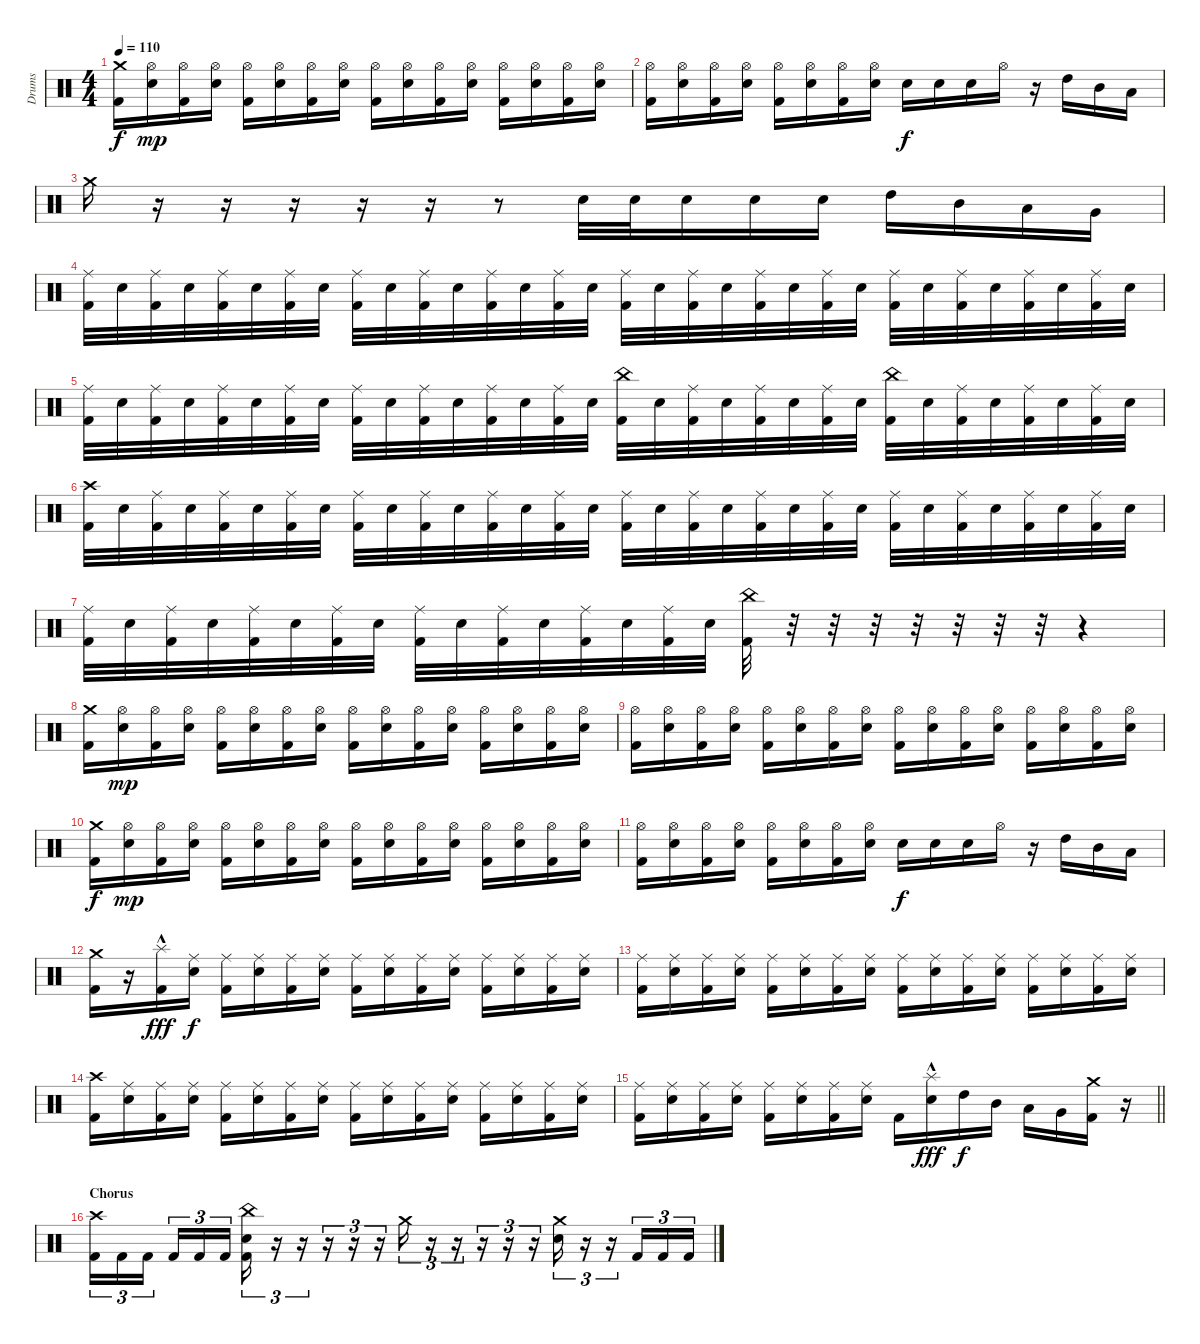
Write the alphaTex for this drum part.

\track ("Drums" "Drums") {instrument percussion}
\staff {score}
\articulation defaults
\ts (4 4)
\tempo 110
\clef neutral
\ks c
("Crash medium (hit)" "Kick (hit) 2").16{dy f} ("Hi-Hat (open)" "Electric Snare (hit)").16{dy mp} ("Hi-Hat (open)" "Kick (hit) 2").16 ("Hi-Hat (open)" "Electric Snare (hit)").16 ("Hi-Hat (open)" "Kick (hit) 2").16 ("Hi-Hat (open)" "Electric Snare (hit)").16 ("Hi-Hat (open)" "Kick (hit) 2").16 ("Hi-Hat (open)" "Electric Snare (hit)").16 ("Hi-Hat (open)" "Kick (hit) 2").16 ("Hi-Hat (open)" "Electric Snare (hit)").16 ("Hi-Hat (open)" "Kick (hit) 2").16 ("Hi-Hat (open)" "Electric Snare (hit)").16 ("Hi-Hat (open)" "Kick (hit) 2").16 ("Hi-Hat (open)" "Electric Snare (hit)").16 ("Hi-Hat (open)" "Kick (hit) 2").16 ("Hi-Hat (open)" "Electric Snare (hit)").16 |
("Hi-Hat (open)" "Kick (hit) 2").16 ("Hi-Hat (open)" "Electric Snare (hit)").16 ("Hi-Hat (open)" "Kick (hit) 2").16 ("Hi-Hat (open)" "Electric Snare (hit)").16 ("Hi-Hat (open)" "Kick (hit) 2").16 ("Hi-Hat (open)" "Electric Snare (hit)").16 ("Hi-Hat (open)" "Kick (hit) 2").16 ("Hi-Hat (open)" "Electric Snare (hit)").16 "Electric Snare (hit)".16{dy f} "Electric Snare (hit)".16 "Electric Snare (hit)".16 "Hi-Hat (open)".16 r.16 "High Tom (hit)".16 "Mid Tom (hit)".16 "Low Tom (hit)".16 |
"Crash medium (hit)".16 r.16 r.16 r.16 r.16 r.16 r.8 "Electric Snare (hit)".32 "Electric Snare (hit)".32 "Electric Snare (hit)".16 "Electric Snare (hit)".16 "Electric Snare (hit)".16 "High Tom (hit)".16 "Mid Tom (hit)".16 "Low Tom (hit)".16 "Very Low Tom (hit)".16 |
("Ride (middle)" "Kick (hit) 2").32 "Electric Snare (hit)".32 ("Ride (middle)" "Kick (hit) 2").32 "Electric Snare (hit)".32 ("Ride (middle)" "Kick (hit) 2").32 "Electric Snare (hit)".32 ("Ride (middle)" "Kick (hit) 2").32 "Electric Snare (hit)".32 ("Ride (middle)" "Kick (hit) 2").32 "Electric Snare (hit)".32 ("Ride (middle)" "Kick (hit) 2").32 "Electric Snare (hit)".32 ("Ride (middle)" "Kick (hit) 2").32 "Electric Snare (hit)".32 ("Ride (middle)" "Kick (hit) 2").32 "Electric Snare (hit)".32 ("Ride (middle)" "Kick (hit) 2").32 "Electric Snare (hit)".32 ("Ride (middle)" "Kick (hit) 2").32 "Electric Snare (hit)".32 ("Ride (middle)" "Kick (hit) 2").32 "Electric Snare (hit)".32 ("Ride (middle)" "Kick (hit) 2").32 "Electric Snare (hit)".32 ("Ride (middle)" "Kick (hit) 2").32 "Electric Snare (hit)".32 ("Ride (middle)" "Kick (hit) 2").32 "Electric Snare (hit)".32 ("Ride (middle)" "Kick (hit) 2").32 "Electric Snare (hit)".32 ("Ride (middle)" "Kick (hit) 2").32 "Electric Snare (hit)".32 |
("Ride (middle)" "Kick (hit) 2").32 "Electric Snare (hit)".32 ("Ride (middle)" "Kick (hit) 2").32 "Electric Snare (hit)".32 ("Ride (middle)" "Kick (hit) 2").32 "Electric Snare (hit)".32 ("Ride (middle)" "Kick (hit) 2").32 "Electric Snare (hit)".32 ("Ride (middle)" "Kick (hit) 2").32 "Electric Snare (hit)".32 ("Ride (middle)" "Kick (hit) 2").32 "Electric Snare (hit)".32 ("Ride (middle)" "Kick (hit) 2").32 "Electric Snare (hit)".32 ("Ride (middle)" "Kick (hit) 2").32 "Electric Snare (hit)".32 ("China (hit)" "Kick (hit) 2").32 "Electric Snare (hit)".32 ("Ride (middle)" "Kick (hit) 2").32 "Electric Snare (hit)".32 ("Ride (middle)" "Kick (hit) 2").32 "Electric Snare (hit)".32 ("Ride (middle)" "Kick (hit) 2").32 "Electric Snare (hit)".32 ("China (hit)" "Kick (hit) 2").32 "Electric Snare (hit)".32 ("Ride (middle)" "Kick (hit) 2").32 "Electric Snare (hit)".32 ("Ride (middle)" "Kick (hit) 2").32 "Electric Snare (hit)".32 ("Ride (middle)" "Kick (hit) 2").32 "Electric Snare (hit)".32 |
("Crash high (hit)" "Kick (hit) 2").32 "Electric Snare (hit)".32 ("Ride (middle)" "Kick (hit) 2").32 "Electric Snare (hit)".32 ("Ride (middle)" "Kick (hit) 2").32 "Electric Snare (hit)".32 ("Ride (middle)" "Kick (hit) 2").32 "Electric Snare (hit)".32 ("Ride (middle)" "Kick (hit) 2").32 "Electric Snare (hit)".32 ("Ride (middle)" "Kick (hit) 2").32 "Electric Snare (hit)".32 ("Ride (middle)" "Kick (hit) 2").32 "Electric Snare (hit)".32 ("Ride (middle)" "Kick (hit) 2").32 "Electric Snare (hit)".32 ("Ride (middle)" "Kick (hit) 2").32 "Electric Snare (hit)".32 ("Ride (middle)" "Kick (hit) 2").32 "Electric Snare (hit)".32 ("Ride (middle)" "Kick (hit) 2").32 "Electric Snare (hit)".32 ("Ride (middle)" "Kick (hit) 2").32 "Electric Snare (hit)".32 ("Ride (middle)" "Kick (hit) 2").32 "Electric Snare (hit)".32 ("Ride (middle)" "Kick (hit) 2").32 "Electric Snare (hit)".32 ("Ride (middle)" "Kick (hit) 2").32 "Electric Snare (hit)".32 ("Ride (middle)" "Kick (hit) 2").32 "Electric Snare (hit)".32 |
("Ride (middle)" "Kick (hit) 2").32 "Electric Snare (hit)".32 ("Ride (middle)" "Kick (hit) 2").32 "Electric Snare (hit)".32 ("Ride (middle)" "Kick (hit) 2").32 "Electric Snare (hit)".32 ("Ride (middle)" "Kick (hit) 2").32 "Electric Snare (hit)".32 ("Ride (middle)" "Kick (hit) 2").32 "Electric Snare (hit)".32 ("Ride (middle)" "Kick (hit) 2").32 "Electric Snare (hit)".32 ("Ride (middle)" "Kick (hit) 2").32 "Electric Snare (hit)".32 ("Ride (middle)" "Kick (hit) 2").32 "Electric Snare (hit)".32 ("China (hit)" "Kick (hit) 2").32 r.32 r.32 r.32 r.32 r.32 r.32 r.32 r.4 |
("Crash medium (hit)" "Kick (hit) 2").16 ("Hi-Hat (open)" "Electric Snare (hit)").16{dy mp} ("Hi-Hat (open)" "Kick (hit) 2").16 ("Hi-Hat (open)" "Electric Snare (hit)").16 ("Hi-Hat (open)" "Kick (hit) 2").16 ("Hi-Hat (open)" "Electric Snare (hit)").16 ("Hi-Hat (open)" "Kick (hit) 2").16 ("Hi-Hat (open)" "Electric Snare (hit)").16 ("Hi-Hat (open)" "Kick (hit) 2").16 ("Hi-Hat (open)" "Electric Snare (hit)").16 ("Hi-Hat (open)" "Kick (hit) 2").16 ("Hi-Hat (open)" "Electric Snare (hit)").16 ("Hi-Hat (open)" "Kick (hit) 2").16 ("Hi-Hat (open)" "Electric Snare (hit)").16 ("Hi-Hat (open)" "Kick (hit) 2").16 ("Hi-Hat (open)" "Electric Snare (hit)").16 |
("Hi-Hat (open)" "Kick (hit) 2").16 ("Hi-Hat (open)" "Electric Snare (hit)").16 ("Hi-Hat (open)" "Kick (hit) 2").16 ("Hi-Hat (open)" "Electric Snare (hit)").16 ("Hi-Hat (open)" "Kick (hit) 2").16 ("Hi-Hat (open)" "Electric Snare (hit)").16 ("Hi-Hat (open)" "Kick (hit) 2").16 ("Hi-Hat (open)" "Electric Snare (hit)").16 ("Hi-Hat (open)" "Kick (hit) 2").16 ("Hi-Hat (open)" "Electric Snare (hit)").16 ("Hi-Hat (open)" "Kick (hit) 2").16 ("Hi-Hat (open)" "Electric Snare (hit)").16 ("Hi-Hat (open)" "Kick (hit) 2").16 ("Hi-Hat (open)" "Electric Snare (hit)").16 ("Hi-Hat (open)" "Kick (hit) 2").16 ("Hi-Hat (open)" "Electric Snare (hit)").16 |
("Crash medium (hit)" "Kick (hit) 2").16{dy f} ("Hi-Hat (open)" "Electric Snare (hit)").16{dy mp} ("Hi-Hat (open)" "Kick (hit) 2").16 ("Hi-Hat (open)" "Electric Snare (hit)").16 ("Hi-Hat (open)" "Kick (hit) 2").16 ("Hi-Hat (open)" "Electric Snare (hit)").16 ("Hi-Hat (open)" "Kick (hit) 2").16 ("Hi-Hat (open)" "Electric Snare (hit)").16 ("Hi-Hat (open)" "Kick (hit) 2").16 ("Hi-Hat (open)" "Electric Snare (hit)").16 ("Hi-Hat (open)" "Kick (hit) 2").16 ("Hi-Hat (open)" "Electric Snare (hit)").16 ("Hi-Hat (open)" "Kick (hit) 2").16 ("Hi-Hat (open)" "Electric Snare (hit)").16 ("Hi-Hat (open)" "Kick (hit) 2").16 ("Hi-Hat (open)" "Electric Snare (hit)").16 |
("Hi-Hat (open)" "Kick (hit) 2").16 ("Hi-Hat (open)" "Electric Snare (hit)").16 ("Hi-Hat (open)" "Kick (hit) 2").16 ("Hi-Hat (open)" "Electric Snare (hit)").16 ("Hi-Hat (open)" "Kick (hit) 2").16 ("Hi-Hat (open)" "Electric Snare (hit)").16 ("Hi-Hat (open)" "Kick (hit) 2").16 ("Hi-Hat (open)" "Electric Snare (hit)").16 "Electric Snare (hit)".16{dy f} "Electric Snare (hit)".16 "Electric Snare (hit)".16 "Hi-Hat (open)".16 r.16 "High Tom (hit)".16 "Mid Tom (hit)".16 "Low Tom (hit)".16 |
("Crash medium (hit)" "Kick (hit) 2").16 r.16 ("Splash (hit)"{hac} "Kick (hit) 2").16{dy fff} ("Ride (middle)" "Electric Snare (hit)").16{dy f} ("Ride (middle)" "Kick (hit) 2").16 ("Ride (middle)" "Electric Snare (hit)").16 ("Ride (middle)" "Kick (hit) 2").16 ("Ride (middle)" "Electric Snare (hit)").16 ("Ride (middle)" "Kick (hit) 2").16 ("Ride (middle)" "Electric Snare (hit)").16 ("Ride (middle)" "Kick (hit) 2").16 ("Ride (middle)" "Electric Snare (hit)").16 ("Ride (middle)" "Kick (hit) 2").16 ("Ride (middle)" "Electric Snare (hit)").16 ("Ride (middle)" "Kick (hit) 2").16 ("Ride (middle)" "Electric Snare (hit)").16 |
("Ride (middle)" "Kick (hit) 2").16 ("Ride (middle)" "Electric Snare (hit)").16 ("Ride (middle)" "Kick (hit) 2").16 ("Ride (middle)" "Electric Snare (hit)").16 ("Ride (middle)" "Kick (hit) 2").16 ("Ride (middle)" "Electric Snare (hit)").16 ("Ride (middle)" "Kick (hit) 2").16 ("Ride (middle)" "Electric Snare (hit)").16 ("Ride (middle)" "Kick (hit) 2").16 ("Ride (middle)" "Electric Snare (hit)").16 ("Ride (middle)" "Kick (hit) 2").16 ("Ride (middle)" "Electric Snare (hit)").16 ("Ride (middle)" "Kick (hit) 2").16 ("Ride (middle)" "Electric Snare (hit)").16 ("Ride (middle)" "Kick (hit) 2").16 ("Ride (middle)" "Electric Snare (hit)").16 |
("Crash high (hit)" "Kick (hit) 2").16 ("Ride (middle)" "Electric Snare (hit)").16 ("Ride (middle)" "Kick (hit) 2").16 ("Ride (middle)" "Electric Snare (hit)").16 ("Ride (middle)" "Kick (hit) 2").16 ("Ride (middle)" "Electric Snare (hit)").16 ("Ride (middle)" "Kick (hit) 2").16 ("Ride (middle)" "Electric Snare (hit)").16 ("Ride (middle)" "Kick (hit) 2").16 ("Ride (middle)" "Electric Snare (hit)").16 ("Ride (middle)" "Kick (hit) 2").16 ("Ride (middle)" "Electric Snare (hit)").16 ("Ride (middle)" "Kick (hit) 2").16 ("Ride (middle)" "Electric Snare (hit)").16 ("Ride (middle)" "Kick (hit) 2").16 ("Ride (middle)" "Electric Snare (hit)").16 |
\barLineRight lightlight
("Ride (middle)" "Kick (hit) 2").16 ("Ride (middle)" "Electric Snare (hit)").16 ("Ride (middle)" "Kick (hit) 2").16 ("Ride (middle)" "Electric Snare (hit)").16 ("Ride (middle)" "Kick (hit) 2").16 ("Ride (middle)" "Electric Snare (hit)").16 ("Ride (middle)" "Kick (hit) 2").16 ("Ride (middle)" "Electric Snare (hit)").16 "Kick (hit) 2".16 ("Splash (hit)"{hac} "Electric Snare (hit)").16{dy fff} "High Tom (hit)".16{dy f} "Mid Tom (hit)".16 "Low Tom (hit)".16 "Very Low Tom (hit)".16 ("Crash medium (hit)" "Kick (hit) 2").16 r.16 |
\section ("" "Chorus")
("Crash high (hit)" "Kick (hit) 2").16{tu (3 2)} "Kick (hit) 2".16{tu (3 2)} "Kick (hit) 2".16{tu (3 2) beam splitsecondary} "Kick (hit) 2".16{tu (3 2)} "Kick (hit) 2".16{tu (3 2)} "Kick (hit) 2".16{tu (3 2)} ("China (hit)" "Electric Snare (hit)" "Kick (hit) 2").16{tu (3 2)} r.16{tu (3 2)} r.16{tu (3 2)} r.16{tu (3 2)} r.16{tu (3 2)} r.16{tu (3 2)} "Crash medium (hit)".16{tu (3 2)} r.16{tu (3 2)} r.16{tu (3 2)} r.16{tu (3 2)} r.16{tu (3 2)} r.16{tu (3 2)} ("Crash medium (hit)" "Electric Snare (hit)").16{tu (3 2)} r.16{tu (3 2)} r.16{tu (3 2)} "Kick (hit) 2".16{tu (3 2)} "Kick (hit) 2".16{tu (3 2)} "Kick (hit) 2".16{tu (3 2)}
